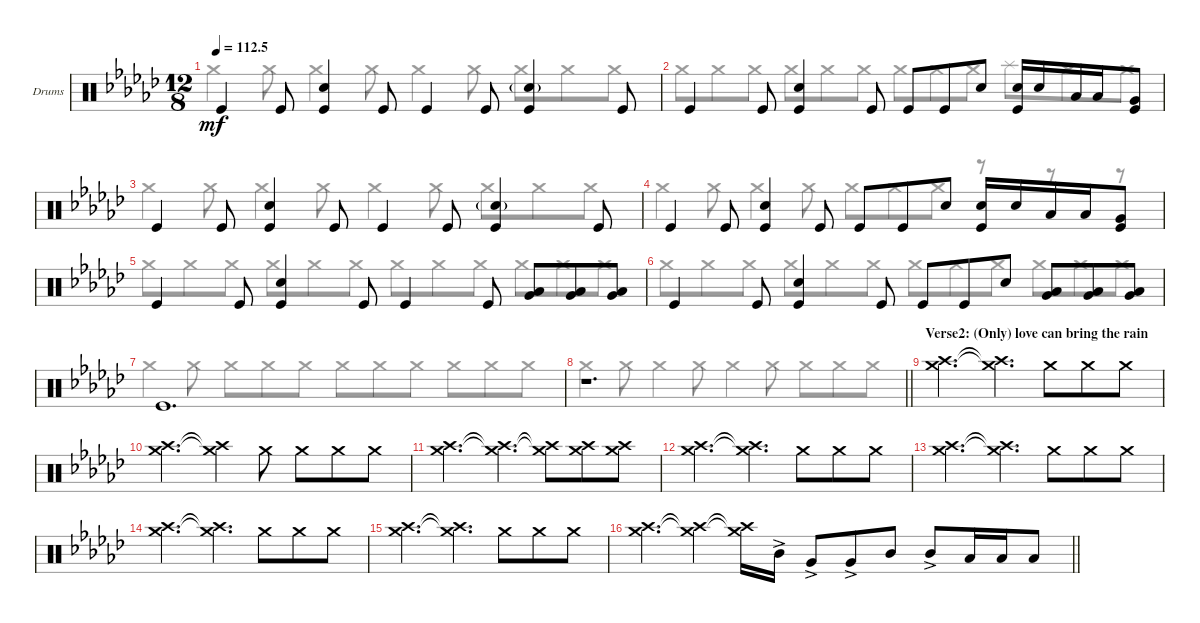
\bracketExtendMode groupsimilarinstruments
\firstSystemTrackNameOrientation horizontal
\otherSystemsTrackNameOrientation horizontal
\track ("Drumkit" "Drums") {instrument percussion}
\staff {score}
\articulation defaults
\voice
\ts (12 8)
\tempo
112.5
\accidentals auto
\clef neutral
\ottava regular
\simile none
\ks ebminor "Kick (hit)".4{dy mf} "Kick (hit)".8
("Kick (hit)" "Snare (hit) 2").4 "Kick (hit)".8 "Kick (hit)".4 "Kick (hit)".8 ("Kick (hit)" "Snare (hit) 2"{g}).4 "Kick (hit)".8 |
"Kick (hit)".4 "Kick (hit)".8 ("Kick (hit)" "Snare (hit) 2").4 "Kick (hit)".8 "Kick (hit)".8 "Kick (hit)".8 "Snare (hit) 2".8 ("Snare (hit) 2" "Kick (hit)").16 "Snare (hit) 2".16 "Low Tom (hit)".16 "Low Tom (hit)".16 ("Very Low Tom (hit)" "Kick (hit)").8 |
"Kick (hit)".4 "Kick (hit)".8 ("Kick (hit)" "Snare (hit) 2").4 "Kick (hit)".8 "Kick (hit)".4 "Kick (hit)".8 ("Kick (hit)" "Snare (hit) 2"{g}).4 "Kick (hit)".8 |
"Kick (hit)".4 "Kick (hit)".8 ("Kick (hit)" "Snare (hit) 2").4 "Kick (hit)".8 "Kick (hit)".8 "Kick (hit)".8 "Snare (hit) 2".8 ("Snare (hit) 2" "Kick (hit)").16 "Snare (hit) 2".16 "Low Tom (hit)".16 "Low Tom (hit)".16 ("Very Low Tom (hit)" "Kick (hit)").8 |
"Kick (hit)".4 "Kick (hit)".8 ("Kick (hit)" "Snare (hit) 2").4 "Kick (hit)".8 "Kick (hit)".4 "Kick (hit)".8 ("Low Tom (hit)" "Very Low Tom (hit)").8 ("Low Tom (hit)" "Very Low Tom (hit)").8 ("Low Tom (hit)" "Very Low Tom (hit)").8 |
"Kick (hit)".4 "Kick (hit)".8 ("Kick (hit)" "Snare (hit) 2").4 "Kick (hit)".8 "Kick (hit)".8 "Kick (hit)".8 "Snare (hit) 2".8 ("Low Tom (hit)" "Very Low Tom (hit)").8 ("Low Tom (hit)" "Very Low Tom (hit)").8 ("Low Tom (hit)" "Very Low Tom (hit)").8 |
"Kick (hit)".1{d} |
\barLineRight lightlight
r.1{d} |
\section ("" "Verse2: (Only) love can bring the rain")
("Crash medium (hit)" "Crash high (hit)").2{d} ("Crash medium (hit)"{t} "Crash high (hit)"{t}).4{d} "Crash medium (hit)".8 "Crash medium (hit)".8 "Crash medium (hit)".8 |
("Crash medium (hit)" "Crash high (hit)").2{d} ("Crash medium (hit)"{t} "Crash high (hit)"{t}).4 "Crash medium (hit)".8 "Crash medium (hit)".8 "Crash medium (hit)".8 "Crash medium (hit)".8 |
("Crash medium (hit)" "Crash high (hit)").2{d} ("Crash medium (hit)"{t} "Crash high (hit)"{t}).4{d} ("Crash medium (hit)"{t} "Crash high (hit)"{t}).8 ("Crash medium (hit)" "Crash high (hit)").8 ("Crash medium (hit)" "Crash high (hit)").8 |
("Crash medium (hit)" "Crash high (hit)").2{d} ("Crash medium (hit)"{t} "Crash high (hit)"{t}).4{d} "Crash medium (hit)".8 "Crash medium (hit)".8 "Crash medium (hit)".8 |
("Crash medium (hit)" "Crash high (hit)").2{d} ("Crash medium (hit)"{t} "Crash high (hit)"{t}).4{d} "Crash medium (hit)".8 "Crash medium (hit)".8 "Crash medium (hit)".8 |
("Crash medium (hit)" "Crash high (hit)").2{d} ("Crash medium (hit)"{t} "Crash high (hit)"{t}).4{d} "Crash medium (hit)".8 "Crash medium (hit)".8 "Crash medium (hit)".8 |
("Crash medium (hit)" "Crash high (hit)").2{d} ("Crash medium (hit)"{t} "Crash high (hit)"{t}).4{d} "Crash medium (hit)".8 "Crash medium (hit)".8 "Crash medium (hit)".8 |
\barLineRight lightlight
("Crash medium (hit)" "Crash high (hit)").4{d} ("Crash medium (hit)"{t} "Crash high (hit)"{t}).4 ("Crash medium (hit)"{t} "Crash high (hit)"{t}).16 "Mid Tom (hit)"{ac}.16 "Very Low Tom (hit)"{ac}.8 "Very Low Tom (hit)"{ac}.8 "Mid Tom (hit)".8 "Mid Tom (hit)"{ac}.8 "Low Tom (hit)".16 "Low Tom (hit)".16 "Low Tom (hit)".8
\voice
\clef neutral
\ottava regular
\simile none
\ks ebminor "Crash medium (hit)".4{dy mf} "Crash medium (hit)".8 "Crash medium (hit)".4 "Crash medium (hit)".8 "Crash medium (hit)".4 "Crash medium (hit)".8 "Crash medium (hit)".8 "Crash medium (hit)".8 "Crash medium (hit)".8
|
"Crash medium (hit)".8 "Crash medium (hit)".8 "Crash medium (hit)".8 "Crash medium (hit)".8 "Crash medium (hit)".8 "Crash medium (hit)".8 "Crash medium (hit)".8 "Crash medium (hit)".8 "Crash medium (hit)".8 "Splash (hit)".8 "Crash medium (hit)".8 "Crash medium (hit)".8 |
"Crash medium (hit)".4 "Crash medium (hit)".8 "Crash medium (hit)".4 "Crash medium (hit)".8 "Crash medium (hit)".4 "Crash medium (hit)".8 "Crash medium (hit)".8 "Crash medium (hit)".8 "Crash medium (hit)".8 |
"Crash medium (hit)".4 "Crash medium (hit)".8 "Crash medium (hit)".4 "Crash medium (hit)".8 "Crash medium (hit)".8 "Crash medium (hit)".8 "Crash medium (hit)".8 r.8 r.8 r.8 |
"Crash medium (hit)".8 "Crash medium (hit)".8 "Crash medium (hit)".8 "Crash medium (hit)".8 "Crash medium (hit)".8 "Crash medium (hit)".8 "Crash medium (hit)".8 "Crash medium (hit)".8 "Crash medium (hit)".8 "Crash medium (hit)".8 "Crash medium (hit)".8 "Crash medium (hit)".8 |
"Crash medium (hit)".8 "Crash medium (hit)".8 "Crash medium (hit)".8 "Crash medium (hit)".8 "Crash medium (hit)".8 "Crash medium (hit)".8 "Crash medium (hit)".8 "Crash medium (hit)".8 "Crash medium (hit)".8 "Crash medium (hit)".8 "Crash medium (hit)".8 "Crash medium (hit)".8 |
"Crash medium (hit)".4 "Crash medium (hit)".8 "Crash medium (hit)".8 "Crash medium (hit)".8 "Crash medium (hit)".8 "Crash medium (hit)".8 "Crash medium (hit)".8 "Crash medium (hit)".8 "Crash medium (hit)".8 "Crash medium (hit)".8 "Crash medium (hit)".8 |
\barLineRight lightlight "Crash medium (hit)".4 "Crash medium (hit)".8 "Crash medium (hit)".4 "Crash medium (hit)".8 "Crash medium (hit)".4 "Crash medium (hit)".8 "Crash medium (hit)".8 "Crash medium (hit)".8 "Crash medium (hit)".8
|
|
|
|
|
|
|
|
\barLineRight lightlight
